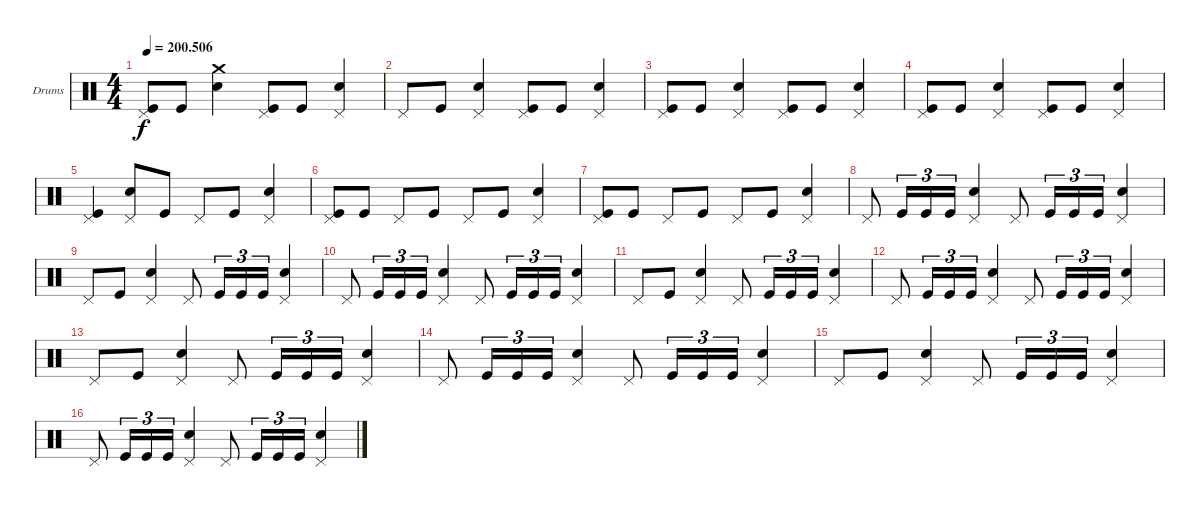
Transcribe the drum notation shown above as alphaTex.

\bracketExtendMode groupsimilarinstruments
\firstSystemTrackNameOrientation horizontal
\otherSystemsTrackNameOrientation horizontal
\track ("Drums" "Drums") {instrument percussion}
\staff {score}
\articulation defaults
\ts (4 4)
\tempo
200.506
\accidentals auto
\clef neutral
\ottava regular
\simile none
\ks c
("Pedal Hi-Hat (hit)" "Kick (hit)").8{dy f} "Kick (hit)".8 ("Crash medium (hit)" "Snare (hit) 2").4 ("Pedal Hi-Hat (hit)" "Kick (hit)").8 "Kick (hit)".8 ("Pedal Hi-Hat (hit)" "Snare (hit) 2").4 |
"Pedal Hi-Hat (hit)".8 "Kick (hit)".8 ("Pedal Hi-Hat (hit)" "Snare (hit) 2").4 ("Pedal Hi-Hat (hit)" "Kick (hit)").8 "Kick (hit)".8 ("Pedal Hi-Hat (hit)" "Snare (hit) 2").4 |
("Pedal Hi-Hat (hit)" "Kick (hit)").8 "Kick (hit)".8 ("Pedal Hi-Hat (hit)" "Snare (hit) 2").4 ("Pedal Hi-Hat (hit)" "Kick (hit)").8 "Kick (hit)".8 ("Pedal Hi-Hat (hit)" "Snare (hit) 2").4 |
("Pedal Hi-Hat (hit)" "Kick (hit)").8 "Kick (hit)".8 ("Pedal Hi-Hat (hit)" "Snare (hit) 2").4 ("Pedal Hi-Hat (hit)" "Kick (hit)").8 "Kick (hit)".8 ("Pedal Hi-Hat (hit)" "Snare (hit) 2").4 |
("Pedal Hi-Hat (hit)" "Kick (hit)").4 ("Pedal Hi-Hat (hit)" "Snare (hit) 2").8 "Kick (hit)".8 "Pedal Hi-Hat (hit)".8 "Kick (hit)".8 ("Pedal Hi-Hat (hit)" "Snare (hit) 2").4 |
("Pedal Hi-Hat (hit)" "Kick (hit)").8 "Kick (hit)".8 "Pedal Hi-Hat (hit)".8 "Kick (hit)".8 "Pedal Hi-Hat (hit)".8 "Kick (hit)".8 ("Pedal Hi-Hat (hit)" "Snare (hit) 2").4 |
("Pedal Hi-Hat (hit)" "Kick (hit)").8 "Kick (hit)".8 "Pedal Hi-Hat (hit)".8 "Kick (hit)".8 "Pedal Hi-Hat (hit)".8 "Kick (hit)".8 ("Pedal Hi-Hat (hit)" "Snare (hit) 2").4 |
"Pedal Hi-Hat (hit)".8 "Kick (hit)".16{tu (3 2)} "Kick (hit)".16{tu (3 2)} "Kick (hit)".16{tu (3 2)} ("Pedal Hi-Hat (hit)" "Snare (hit) 2").4 "Pedal Hi-Hat (hit)".8 "Kick (hit)".16{tu (3 2)} "Kick (hit)".16{tu (3 2)} "Kick (hit)".16{tu (3 2)} ("Pedal Hi-Hat (hit)" "Snare (hit) 2").4 |
"Pedal Hi-Hat (hit)".8 "Kick (hit)".8 ("Pedal Hi-Hat (hit)" "Snare (hit) 2").4 "Pedal Hi-Hat (hit)".8 "Kick (hit)".16{tu (3 2)} "Kick (hit)".16{tu (3 2)} "Kick (hit)".16{tu (3 2)} ("Pedal Hi-Hat (hit)" "Snare (hit) 2").4 |
"Pedal Hi-Hat (hit)".8 "Kick (hit)".16{tu (3 2)} "Kick (hit)".16{tu (3 2)} "Kick (hit)".16{tu (3 2)} ("Pedal Hi-Hat (hit)" "Snare (hit) 2").4 "Pedal Hi-Hat (hit)".8 "Kick (hit)".16{tu (3 2)} "Kick (hit)".16{tu (3 2)} "Kick (hit)".16{tu (3 2)} ("Pedal Hi-Hat (hit)" "Snare (hit) 2").4 |
"Pedal Hi-Hat (hit)".8 "Kick (hit)".8 ("Pedal Hi-Hat (hit)" "Snare (hit) 2").4 "Pedal Hi-Hat (hit)".8 "Kick (hit)".16{tu (3 2)} "Kick (hit)".16{tu (3 2)} "Kick (hit)".16{tu (3 2)} ("Pedal Hi-Hat (hit)" "Snare (hit) 2").4 |
"Pedal Hi-Hat (hit)".8 "Kick (hit)".16{tu (3 2)} "Kick (hit)".16{tu (3 2)} "Kick (hit)".16{tu (3 2)} ("Pedal Hi-Hat (hit)" "Snare (hit) 2").4 "Pedal Hi-Hat (hit)".8 "Kick (hit)".16{tu (3 2)} "Kick (hit)".16{tu (3 2)} "Kick (hit)".16{tu (3 2)} ("Pedal Hi-Hat (hit)" "Snare (hit) 2").4 |
"Pedal Hi-Hat (hit)".8 "Kick (hit)".8 ("Pedal Hi-Hat (hit)" "Snare (hit) 2").4 "Pedal Hi-Hat (hit)".8 "Kick (hit)".16{tu (3 2)} "Kick (hit)".16{tu (3 2)} "Kick (hit)".16{tu (3 2)} ("Pedal Hi-Hat (hit)" "Snare (hit) 2").4 |
"Pedal Hi-Hat (hit)".8 "Kick (hit)".16{tu (3 2)} "Kick (hit)".16{tu (3 2)} "Kick (hit)".16{tu (3 2)} ("Pedal Hi-Hat (hit)" "Snare (hit) 2").4 "Pedal Hi-Hat (hit)".8 "Kick (hit)".16{tu (3 2)} "Kick (hit)".16{tu (3 2)} "Kick (hit)".16{tu (3 2)} ("Pedal Hi-Hat (hit)" "Snare (hit) 2").4 |
"Pedal Hi-Hat (hit)".8 "Kick (hit)".8 ("Pedal Hi-Hat (hit)" "Snare (hit) 2").4 "Pedal Hi-Hat (hit)".8 "Kick (hit)".16{tu (3 2)} "Kick (hit)".16{tu (3 2)} "Kick (hit)".16{tu (3 2)} ("Pedal Hi-Hat (hit)" "Snare (hit) 2").4 |
"Pedal Hi-Hat (hit)".8 "Kick (hit)".16{tu (3 2)} "Kick (hit)".16{tu (3 2)} "Kick (hit)".16{tu (3 2)} ("Pedal Hi-Hat (hit)" "Snare (hit) 2").4 "Pedal Hi-Hat (hit)".8 "Kick (hit)".16{tu (3 2)} "Kick (hit)".16{tu (3 2)} "Kick (hit)".16{tu (3 2)} ("Pedal Hi-Hat (hit)" "Snare (hit) 2").4
